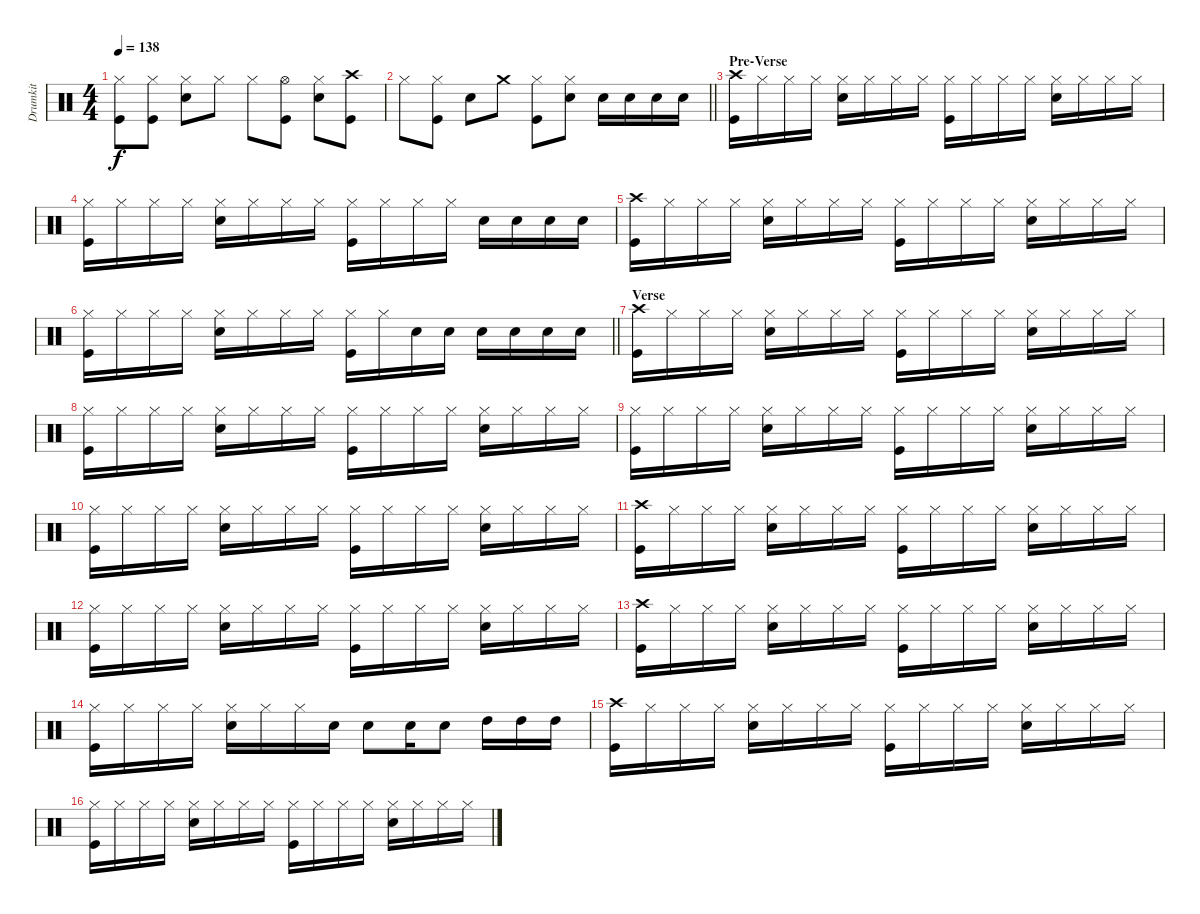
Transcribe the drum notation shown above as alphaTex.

\track ("Drumkit" "Drumkit") {instrument percussion}
\staff {score}
\articulation defaults
\ts (4 4)
\tempo 138
\clef neutral
\ks c
("Hi-Hat (closed)" "Kick (hit)").8{dy f} ("Hi-Hat (closed)" "Kick (hit)").8 ("Hi-Hat (closed)" "Snare (hit) 2").8 "Hi-Hat (closed)".8 "Hi-Hat (closed)".8 ("Hi-Hat (open)" "Kick (hit)").8 ("Hi-Hat (closed)" "Snare (hit) 2").8 ("Crash high (hit)" "Kick (hit)").8 |
\barLineRight lightlight "Hi-Hat (closed)".8
("Kick (hit)" "Hi-Hat (closed)").8 "Snare (hit) 2".8 "Crash medium (hit)".8 ("Kick (hit)" "Hi-Hat (closed)").8 ("Snare (hit) 2" "Hi-Hat (closed)").8 "Snare (hit) 2".16 "Snare (hit) 2".16 "Snare (hit) 2".16 "Snare (hit) 2".16 |
\section ("" "Pre-Verse")
("Kick (hit)" "Crash high (hit)").16 "Hi-Hat (closed)".16 "Hi-Hat (closed)".16 "Hi-Hat (closed)".16 ("Snare (hit) 2" "Hi-Hat (closed)").16 "Hi-Hat (closed)".16 "Hi-Hat (closed)".16 "Hi-Hat (closed)".16 ("Kick (hit)" "Hi-Hat (closed)").16 "Hi-Hat (closed)".16 "Hi-Hat (closed)".16 "Hi-Hat (closed)".16 ("Snare (hit) 2" "Hi-Hat (closed)").16 "Hi-Hat (closed)".16 "Hi-Hat (closed)".16 "Hi-Hat (closed)".16 |
("Kick (hit)" "Hi-Hat (closed)").16 "Hi-Hat (closed)".16 "Hi-Hat (closed)".16 "Hi-Hat (closed)".16 ("Snare (hit) 2" "Hi-Hat (closed)").16 "Hi-Hat (closed)".16 "Hi-Hat (closed)".16 "Hi-Hat (closed)".16 ("Kick (hit)" "Hi-Hat (closed)").16 "Hi-Hat (closed)".16 "Hi-Hat (closed)".16 "Hi-Hat (closed)".16 "Snare (hit) 2".16 "Snare (hit) 2".16 "Snare (hit) 2".16 "Snare (hit) 2".16 |
("Kick (hit)" "Crash high (hit)").16 "Hi-Hat (closed)".16 "Hi-Hat (closed)".16 "Hi-Hat (closed)".16 ("Snare (hit) 2" "Hi-Hat (closed)").16 "Hi-Hat (closed)".16 "Hi-Hat (closed)".16 "Hi-Hat (closed)".16 ("Kick (hit)" "Hi-Hat (closed)").16 "Hi-Hat (closed)".16 "Hi-Hat (closed)".16 "Hi-Hat (closed)".16 ("Snare (hit) 2" "Hi-Hat (closed)").16 "Hi-Hat (closed)".16 "Hi-Hat (closed)".16 "Hi-Hat (closed)".16 |
\barLineRight lightlight
("Kick (hit)" "Hi-Hat (closed)").16 "Hi-Hat (closed)".16 "Hi-Hat (closed)".16 "Hi-Hat (closed)".16 ("Snare (hit) 2" "Hi-Hat (closed)").16 "Hi-Hat (closed)".16 "Hi-Hat (closed)".16 "Hi-Hat (closed)".16 ("Kick (hit)" "Hi-Hat (closed)").16 "Hi-Hat (closed)".16 "Snare (hit) 2".16 "Snare (hit) 2".16 "Snare (hit) 2".16 "Snare (hit) 2".16 "Snare (hit) 2".16 "Snare (hit) 2".16 |
\section ("" "Verse")
("Kick (hit)" "Crash high (hit)").16 "Hi-Hat (closed)".16 "Hi-Hat (closed)".16 "Hi-Hat (closed)".16 ("Snare (hit) 2" "Hi-Hat (closed)").16 "Hi-Hat (closed)".16 "Hi-Hat (closed)".16 "Hi-Hat (closed)".16 ("Kick (hit)" "Hi-Hat (closed)").16 "Hi-Hat (closed)".16 "Hi-Hat (closed)".16 "Hi-Hat (closed)".16 ("Snare (hit) 2" "Hi-Hat (closed)").16 "Hi-Hat (closed)".16 "Hi-Hat (closed)".16 "Hi-Hat (closed)".16 |
("Kick (hit)" "Hi-Hat (closed)").16 "Hi-Hat (closed)".16 "Hi-Hat (closed)".16 "Hi-Hat (closed)".16 ("Snare (hit) 2" "Hi-Hat (closed)").16 "Hi-Hat (closed)".16 "Hi-Hat (closed)".16 "Hi-Hat (closed)".16 ("Kick (hit)" "Hi-Hat (closed)").16 "Hi-Hat (closed)".16 "Hi-Hat (closed)".16 "Hi-Hat (closed)".16 ("Snare (hit) 2" "Hi-Hat (closed)").16 "Hi-Hat (closed)".16 "Hi-Hat (closed)".16 "Hi-Hat (closed)".16 |
("Kick (hit)" "Hi-Hat (closed)").16 "Hi-Hat (closed)".16 "Hi-Hat (closed)".16 "Hi-Hat (closed)".16 ("Snare (hit) 2" "Hi-Hat (closed)").16 "Hi-Hat (closed)".16 "Hi-Hat (closed)".16 "Hi-Hat (closed)".16 ("Kick (hit)" "Hi-Hat (closed)").16 "Hi-Hat (closed)".16 "Hi-Hat (closed)".16 "Hi-Hat (closed)".16 ("Snare (hit) 2" "Hi-Hat (closed)").16 "Hi-Hat (closed)".16 "Hi-Hat (closed)".16 "Hi-Hat (closed)".16 |
("Kick (hit)" "Hi-Hat (closed)").16 "Hi-Hat (closed)".16 "Hi-Hat (closed)".16 "Hi-Hat (closed)".16 ("Snare (hit) 2" "Hi-Hat (closed)").16 "Hi-Hat (closed)".16 "Hi-Hat (closed)".16 "Hi-Hat (closed)".16 ("Kick (hit)" "Hi-Hat (closed)").16 "Hi-Hat (closed)".16 "Hi-Hat (closed)".16 "Hi-Hat (closed)".16 ("Snare (hit) 2" "Hi-Hat (closed)").16 "Hi-Hat (closed)".16 "Hi-Hat (closed)".16 "Hi-Hat (closed)".16 |
("Kick (hit)" "Crash high (hit)").16 "Hi-Hat (closed)".16 "Hi-Hat (closed)".16 "Hi-Hat (closed)".16 ("Snare (hit) 2" "Hi-Hat (closed)").16 "Hi-Hat (closed)".16 "Hi-Hat (closed)".16 "Hi-Hat (closed)".16 ("Kick (hit)" "Hi-Hat (closed)").16 "Hi-Hat (closed)".16 "Hi-Hat (closed)".16 "Hi-Hat (closed)".16 ("Snare (hit) 2" "Hi-Hat (closed)").16 "Hi-Hat (closed)".16 "Hi-Hat (closed)".16 "Hi-Hat (closed)".16 |
("Kick (hit)" "Hi-Hat (closed)").16 "Hi-Hat (closed)".16 "Hi-Hat (closed)".16 "Hi-Hat (closed)".16 ("Snare (hit) 2" "Hi-Hat (closed)").16 "Hi-Hat (closed)".16 "Hi-Hat (closed)".16 "Hi-Hat (closed)".16 ("Kick (hit)" "Hi-Hat (closed)").16 "Hi-Hat (closed)".16 "Hi-Hat (closed)".16 "Hi-Hat (closed)".16 ("Snare (hit) 2" "Hi-Hat (closed)").16 "Hi-Hat (closed)".16 "Hi-Hat (closed)".16 "Hi-Hat (closed)".16 |
("Kick (hit)" "Crash high (hit)").16 "Hi-Hat (closed)".16 "Hi-Hat (closed)".16 "Hi-Hat (closed)".16 ("Snare (hit) 2" "Hi-Hat (closed)").16 "Hi-Hat (closed)".16 "Hi-Hat (closed)".16 "Hi-Hat (closed)".16 ("Kick (hit)" "Hi-Hat (closed)").16 "Hi-Hat (closed)".16 "Hi-Hat (closed)".16 "Hi-Hat (closed)".16 ("Snare (hit) 2" "Hi-Hat (closed)").16 "Hi-Hat (closed)".16 "Hi-Hat (closed)".16 "Hi-Hat (closed)".16 |
("Kick (hit)" "Hi-Hat (closed)").16 "Hi-Hat (closed)".16 "Hi-Hat (closed)".16 "Hi-Hat (closed)".16 ("Snare (hit) 2" "Hi-Hat (closed)").16 "Hi-Hat (closed)".16 "Hi-Hat (closed)".16 "Snare (hit) 2".16 "Snare (hit) 2".8 "Snare (hit) 2".16 "Snare (hit) 2".8 "High Tom (hit)".16 "High Tom (hit)".16 "High Tom (hit)".16 |
("Kick (hit)" "Crash high (hit)").16 "Hi-Hat (closed)".16 "Hi-Hat (closed)".16 "Hi-Hat (closed)".16 ("Snare (hit) 2" "Hi-Hat (closed)").16 "Hi-Hat (closed)".16 "Hi-Hat (closed)".16 "Hi-Hat (closed)".16 ("Kick (hit)" "Hi-Hat (closed)").16 "Hi-Hat (closed)".16 "Hi-Hat (closed)".16 "Hi-Hat (closed)".16 ("Snare (hit) 2" "Hi-Hat (closed)").16 "Hi-Hat (closed)".16 "Hi-Hat (closed)".16 "Hi-Hat (closed)".16 |
("Kick (hit)" "Hi-Hat (closed)").16 "Hi-Hat (closed)".16 "Hi-Hat (closed)".16 "Hi-Hat (closed)".16 ("Snare (hit) 2" "Hi-Hat (closed)").16 "Hi-Hat (closed)".16 "Hi-Hat (closed)".16 "Hi-Hat (closed)".16 ("Kick (hit)" "Hi-Hat (closed)").16 "Hi-Hat (closed)".16 "Hi-Hat (closed)".16 "Hi-Hat (closed)".16 ("Snare (hit) 2" "Hi-Hat (closed)").16 "Hi-Hat (closed)".16 "Hi-Hat (closed)".16 "Hi-Hat (closed)".16
